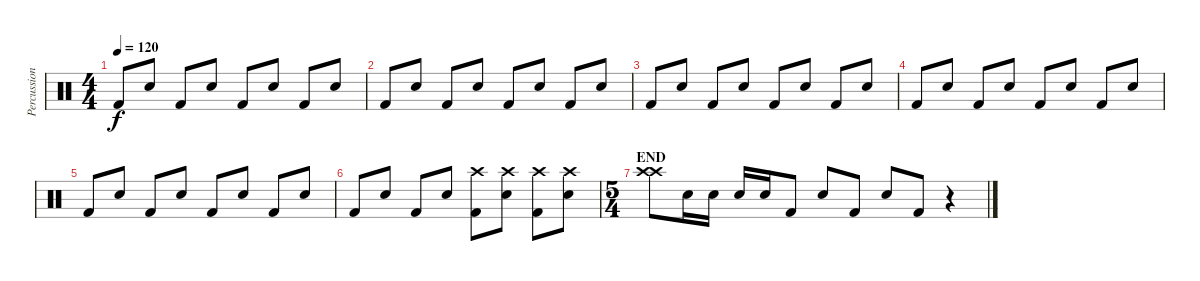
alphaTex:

\track ("Percussion" "Percussion") {instrument percussion}
\staff {score}
\articulation defaults
\ts (4 4)
\tempo 120
\clef neutral
\ks c "Kick (hit) 2".8{dy f} "Electric Snare (hit)".8 "Kick (hit) 2".8 "Electric Snare (hit)".8 "Kick (hit) 2".8 "Electric Snare (hit)".8 "Kick (hit) 2".8 "Electric Snare (hit)".8
|
"Kick (hit) 2".8 "Electric Snare (hit)".8 "Kick (hit) 2".8 "Electric Snare (hit)".8 "Kick (hit) 2".8 "Electric Snare (hit)".8 "Kick (hit) 2".8 "Electric Snare (hit)".8 |
"Kick (hit) 2".8 "Electric Snare (hit)".8 "Kick (hit) 2".8 "Electric Snare (hit)".8 "Kick (hit) 2".8 "Electric Snare (hit)".8 "Kick (hit) 2".8 "Electric Snare (hit)".8 |
"Kick (hit) 2".8 "Electric Snare (hit)".8 "Kick (hit) 2".8 "Electric Snare (hit)".8 "Kick (hit) 2".8 "Electric Snare (hit)".8 "Kick (hit) 2".8 "Electric Snare (hit)".8 |
"Kick (hit) 2".8 "Electric Snare (hit)".8 "Kick (hit) 2".8 "Electric Snare (hit)".8 "Kick (hit) 2".8 "Electric Snare (hit)".8 "Kick (hit) 2".8 "Electric Snare (hit)".8 |
"Kick (hit) 2".8 "Electric Snare (hit)".8 "Kick (hit) 2".8 "Electric Snare (hit)".8 ("Kick (hit) 2" "Crash high (hit)").8 ("Electric Snare (hit)" "Crash high (hit)").8 ("Kick (hit) 2" "Crash high (hit)").8 ("Electric Snare (hit)" "Crash high (hit)").8 |
\ts (5 4)
\section ("" "END")
("Crash high (hit)" "Crash high (hit)").8 "Electric Snare (hit)".16 "Electric Snare (hit)".16 "Electric Snare (hit)".16 "Electric Snare (hit)".16 "Kick (hit) 2".8 "Electric Snare (hit)".8 "Kick (hit) 2".8 "Electric Snare (hit)".8 "Kick (hit) 2".8 r.4
